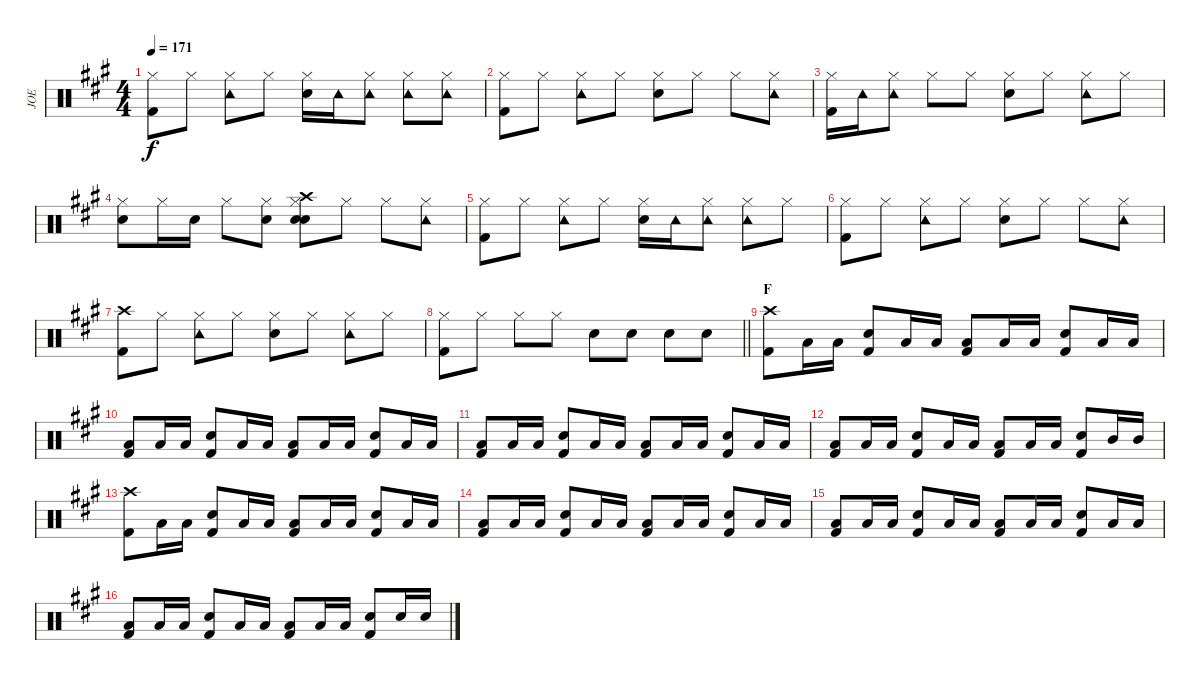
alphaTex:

\track ("JOE" "JOE") {instrument percussion}
\staff {score}
\articulation defaults
\ts (4 4)
\tempo 171
\clef neutral
\ks a
("Hi-Hat (closed)" "Kick (hit) 2").8{dy f} "Hi-Hat (closed)".8 ("Hi-Hat (closed)" "Tambourine (hit)").8 "Hi-Hat (closed)".8 ("Hi-Hat (closed)" "Snare (hit) 2").16 "Tambourine (hit)".16 ("Hi-Hat (closed)" "Tambourine (hit)").8 ("Hi-Hat (closed)" "Tambourine (hit)").8 ("Hi-Hat (closed)" "Tambourine (hit)").8 |
("Hi-Hat (closed)" "Kick (hit) 2").8 "Hi-Hat (closed)".8 ("Hi-Hat (closed)" "Tambourine (hit)").8 "Hi-Hat (closed)".8 ("Hi-Hat (closed)" "Snare (hit) 2").8 "Hi-Hat (closed)".8 "Hi-Hat (closed)".8 ("Hi-Hat (closed)" "Tambourine (hit)").8 |
("Hi-Hat (closed)" "Kick (hit) 2").16 "Tambourine (hit)".16 ("Hi-Hat (closed)" "Tambourine (hit)").8 "Hi-Hat (closed)".8 "Hi-Hat (closed)".8 ("Hi-Hat (closed)" "Snare (hit) 2").8 "Hi-Hat (closed)".8 ("Hi-Hat (closed)" "Tambourine (hit)").8 "Hi-Hat (closed)".8 |
("Hi-Hat (closed)" "Hand Clap (hit)").8 "Hi-Hat (closed)".16 "Hand Clap (hit)".16 "Hi-Hat (closed)".8 ("Hi-Hat (closed)" "Hand Clap (hit)").8 ("Crash high (hit)" "Hi-Hat (closed)" "Hand Clap (hit)" "Snare (hit) 2").8 "Hi-Hat (closed)".8 "Hi-Hat (closed)".8 ("Hi-Hat (closed)" "Tambourine (hit)").8 |
("Hi-Hat (closed)" "Kick (hit) 2").8 "Hi-Hat (closed)".8 ("Hi-Hat (closed)" "Tambourine (hit)").8 "Hi-Hat (closed)".8 ("Hi-Hat (closed)" "Snare (hit) 2").16 "Tambourine (hit)".16 ("Hi-Hat (closed)" "Tambourine (hit)").8 ("Hi-Hat (closed)" "Tambourine (hit)").8 "Hi-Hat (closed)".8 |
("Hi-Hat (closed)" "Kick (hit) 2").8 "Hi-Hat (closed)".8 ("Hi-Hat (closed)" "Tambourine (hit)").8 "Hi-Hat (closed)".8 ("Hi-Hat (closed)" "Snare (hit) 2").8 "Hi-Hat (closed)".8 "Hi-Hat (closed)".8 ("Hi-Hat (closed)" "Tambourine (hit)").8 |
("Crash high (hit)" "Kick (hit) 2").8 "Hi-Hat (closed)".8 ("Hi-Hat (closed)" "Tambourine (hit)").8 "Hi-Hat (closed)".8 ("Hi-Hat (closed)" "Snare (hit) 2").8 "Hi-Hat (closed)".8 ("Hi-Hat (closed)" "Tambourine (hit)").8 "Hi-Hat (closed)".8 |
\barLineRight lightlight
("Hi-Hat (closed)" "Kick (hit) 2").8 "Hi-Hat (closed)".8 "Hi-Hat (closed)".8 "Hi-Hat (closed)".8 "Snare (hit) 2".8 "Snare (hit) 2".8 "Snare (hit) 2".8 "Snare (hit) 2".8 |
\section ("" "F")
("Crash high (hit)" "Kick (hit) 2").8 "Low Floor Tom (hit)".16 "Low Floor Tom (hit)".16 ("Snare (hit) 2" "Kick (hit) 2").8 "Low Floor Tom (hit)".16 "Low Floor Tom (hit)".16 ("Low Floor Tom (hit)" "Kick (hit) 2").8 "Low Floor Tom (hit)".16 "Low Floor Tom (hit)".16 ("Snare (hit) 2" "Kick (hit) 2").8 "Low Floor Tom (hit)".16 "Low Floor Tom (hit)".16 |
("Low Floor Tom (hit)" "Kick (hit) 2").8 "Low Floor Tom (hit)".16 "Low Floor Tom (hit)".16 ("Snare (hit) 2" "Kick (hit) 2").8 "Low Floor Tom (hit)".16 "Low Floor Tom (hit)".16 ("Low Floor Tom (hit)" "Kick (hit) 2").8 "Low Floor Tom (hit)".16 "Low Floor Tom (hit)".16 ("Snare (hit) 2" "Kick (hit) 2").8 "Low Floor Tom (hit)".16 "Low Floor Tom (hit)".16 |
("Low Floor Tom (hit)" "Kick (hit) 2").8 "Low Floor Tom (hit)".16 "Low Floor Tom (hit)".16 ("Snare (hit) 2" "Kick (hit) 2").8 "Low Floor Tom (hit)".16 "Low Floor Tom (hit)".16 ("Low Floor Tom (hit)" "Kick (hit) 2").8 "Low Floor Tom (hit)".16 "Low Floor Tom (hit)".16 ("Snare (hit) 2" "Kick (hit) 2").8 "Low Floor Tom (hit)".16 "Low Floor Tom (hit)".16 |
("Low Floor Tom (hit)" "Kick (hit) 2").8 "Low Floor Tom (hit)".16 "Low Floor Tom (hit)".16 ("Snare (hit) 2" "Kick (hit) 2").8 "Low Floor Tom (hit)".16 "Low Floor Tom (hit)".16 ("Low Floor Tom (hit)" "Kick (hit) 2").8 "Low Floor Tom (hit)".16 "Low Floor Tom (hit)".16 ("Snare (hit) 2" "Kick (hit) 2").8 "Mid Tom (hit)".16 "Mid Tom (hit)".16 |
("Crash high (hit)" "Kick (hit) 2").8 "Low Floor Tom (hit)".16 "Low Floor Tom (hit)".16 ("Snare (hit) 2" "Kick (hit) 2").8 "Low Floor Tom (hit)".16 "Low Floor Tom (hit)".16 ("Low Floor Tom (hit)" "Kick (hit) 2").8 "Low Floor Tom (hit)".16 "Low Floor Tom (hit)".16 ("Snare (hit) 2" "Kick (hit) 2").8 "Low Floor Tom (hit)".16 "Low Floor Tom (hit)".16 |
("Low Floor Tom (hit)" "Kick (hit) 2").8 "Low Floor Tom (hit)".16 "Low Floor Tom (hit)".16 ("Snare (hit) 2" "Kick (hit) 2").8 "Low Floor Tom (hit)".16 "Low Floor Tom (hit)".16 ("Low Floor Tom (hit)" "Kick (hit) 2").8 "Low Floor Tom (hit)".16 "Low Floor Tom (hit)".16 ("Snare (hit) 2" "Kick (hit) 2").8 "Low Floor Tom (hit)".16 "Low Floor Tom (hit)".16 |
("Low Floor Tom (hit)" "Kick (hit) 2").8 "Low Floor Tom (hit)".16 "Low Floor Tom (hit)".16 ("Snare (hit) 2" "Kick (hit) 2").8 "Low Floor Tom (hit)".16 "Low Floor Tom (hit)".16 ("Low Floor Tom (hit)" "Kick (hit) 2").8 "Low Floor Tom (hit)".16 "Low Floor Tom (hit)".16 ("Snare (hit) 2" "Kick (hit) 2").8 "Low Floor Tom (hit)".16 "Low Floor Tom (hit)".16 |
("Low Floor Tom (hit)" "Kick (hit) 2").8 "Low Floor Tom (hit)".16 "Low Floor Tom (hit)".16 ("Snare (hit) 2" "Kick (hit) 2").8 "Low Floor Tom (hit)".16 "Low Floor Tom (hit)".16 ("Low Floor Tom (hit)" "Kick (hit) 2").8 "Low Floor Tom (hit)".16 "Low Floor Tom (hit)".16 ("Snare (hit) 2" "Kick (hit) 2").8 "Snare (hit) 2".16 "Snare (hit) 2".16
